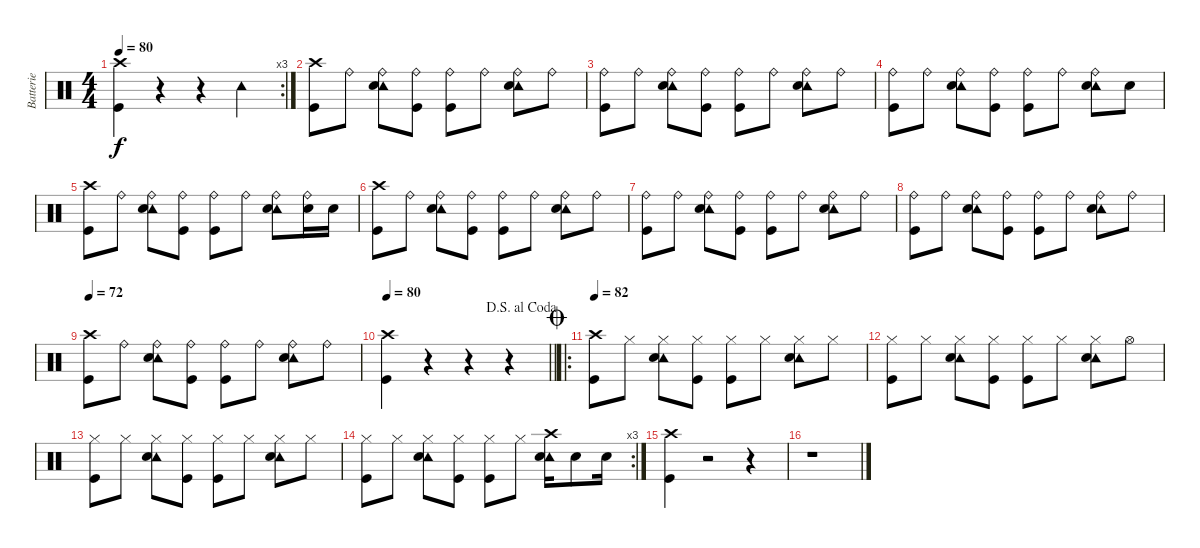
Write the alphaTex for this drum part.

\track ("Batterie" "Batterie") {instrument percussion}
\staff {score}
\articulation defaults
\rc 3
\ts (4 4)
\tempo 80
\clef neutral
\ks c
("Crash high (hit)" "Kick (hit)").4{dy f} r.4 r.4 "Tambourine (hit)".4 |
("Crash high (hit)" "Kick (hit)").8 "Ride (bell)".8 ("Ride (bell)" "Tambourine (hit)" "Electric Snare (hit)").8 ("Ride (bell)" "Kick (hit)").8 ("Ride (bell)" "Kick (hit)").8 "Ride (bell)".8 ("Ride (bell)" "Tambourine (hit)" "Electric Snare (hit)").8 "Ride (bell)".8 |
("Ride (bell)" "Kick (hit)").8 "Ride (bell)".8 ("Ride (bell)" "Tambourine (hit)" "Electric Snare (hit)").8 ("Ride (bell)" "Kick (hit)").8 ("Ride (bell)" "Kick (hit)").8 "Ride (bell)".8 ("Ride (bell)" "Tambourine (hit)" "Electric Snare (hit)").8 "Ride (bell)".8 |
("Ride (bell)" "Kick (hit)").8 "Ride (bell)".8 ("Ride (bell)" "Tambourine (hit)" "Electric Snare (hit)").8 ("Ride (bell)" "Kick (hit)").8 ("Ride (bell)" "Kick (hit)").8 "Ride (bell)".8 ("Ride (bell)" "Tambourine (hit)" "Electric Snare (hit)").8 "Electric Snare (hit)".8 |
("Crash high (hit)" "Kick (hit)").8 "Ride (bell)".8 ("Ride (bell)" "Tambourine (hit)" "Electric Snare (hit)").8 ("Ride (bell)" "Kick (hit)").8 ("Ride (bell)" "Kick (hit)").8 "Ride (bell)".8 ("Ride (bell)" "Tambourine (hit)" "Electric Snare (hit)").8 ("Ride (bell)" "Electric Snare (hit)").16 "Electric Snare (hit)".16 |
("Crash high (hit)" "Kick (hit)").8 "Ride (bell)".8 ("Ride (bell)" "Tambourine (hit)" "Electric Snare (hit)").8 ("Ride (bell)" "Kick (hit)").8 ("Ride (bell)" "Kick (hit)").8 "Ride (bell)".8 ("Ride (bell)" "Tambourine (hit)" "Electric Snare (hit)").8 "Ride (bell)".8 |
("Ride (bell)" "Kick (hit)").8 "Ride (bell)".8 ("Ride (bell)" "Tambourine (hit)" "Electric Snare (hit)").8 ("Ride (bell)" "Kick (hit)").8 ("Ride (bell)" "Kick (hit)").8 "Ride (bell)".8 ("Ride (bell)" "Tambourine (hit)" "Electric Snare (hit)").8 "Ride (bell)".8 |
("Ride (bell)" "Kick (hit)").8 "Ride (bell)".8 ("Ride (bell)" "Tambourine (hit)" "Electric Snare (hit)").8 ("Ride (bell)" "Kick (hit)").8 ("Ride (bell)" "Kick (hit)").8 "Ride (bell)".8 ("Ride (bell)" "Tambourine (hit)" "Electric Snare (hit)").8 "Ride (bell)".8 |
\tempo 72
("Crash high (hit)" "Kick (hit)").8 "Ride (bell)".8 ("Ride (bell)" "Tambourine (hit)" "Electric Snare (hit)").8 ("Ride (bell)" "Kick (hit)").8 ("Ride (bell)" "Kick (hit)").8 "Ride (bell)".8 ("Ride (bell)" "Tambourine (hit)" "Electric Snare (hit)").8 "Ride (bell)".8 |
\jump dalsegnoalcoda
\tempo 80
\barLineRight lightlight
("Crash high (hit)" "Kick (hit)").4 r.4 r.4 r.4 |
\ro
\jump coda
\tempo 82
("Crash high (hit)" "Kick (hit)").8 "Hi-Hat (closed)".8 ("Hi-Hat (closed)" "Tambourine (hit)" "Electric Snare (hit)").8 ("Hi-Hat (closed)" "Kick (hit)").8 ("Hi-Hat (closed)" "Kick (hit)").8 "Hi-Hat (closed)".8 ("Hi-Hat (closed)" "Tambourine (hit)" "Electric Snare (hit)").8 "Hi-Hat (closed)".8 |
("Hi-Hat (closed)" "Kick (hit)").8 "Hi-Hat (closed)".8 ("Hi-Hat (closed)" "Tambourine (hit)" "Electric Snare (hit)").8 ("Hi-Hat (closed)" "Kick (hit)").8 ("Hi-Hat (closed)" "Kick (hit)").8 "Hi-Hat (closed)".8 ("Hi-Hat (closed)" "Tambourine (hit)" "Electric Snare (hit)").8 "Hi-Hat (open)".8 |
("Hi-Hat (closed)" "Kick (hit)").8 "Hi-Hat (closed)".8 ("Hi-Hat (closed)" "Tambourine (hit)" "Electric Snare (hit)").8 ("Hi-Hat (closed)" "Kick (hit)").8 ("Hi-Hat (closed)" "Kick (hit)").8 "Hi-Hat (closed)".8 ("Hi-Hat (closed)" "Tambourine (hit)" "Electric Snare (hit)").8 "Hi-Hat (closed)".8 |
\rc 3
("Hi-Hat (closed)" "Kick (hit)").8 "Hi-Hat (closed)".8 ("Hi-Hat (closed)" "Tambourine (hit)" "Electric Snare (hit)").8 ("Hi-Hat (closed)" "Kick (hit)").8 ("Hi-Hat (closed)" "Kick (hit)").8 "Hi-Hat (closed)".8 ("Crash high (hit)" "Tambourine (hit)" "Electric Snare (hit)").16 "Electric Snare (hit)".8 "Electric Snare (hit)".16 |
("Crash high (hit)" "Kick (hit)").4 r.2 r.4 |
r.1
